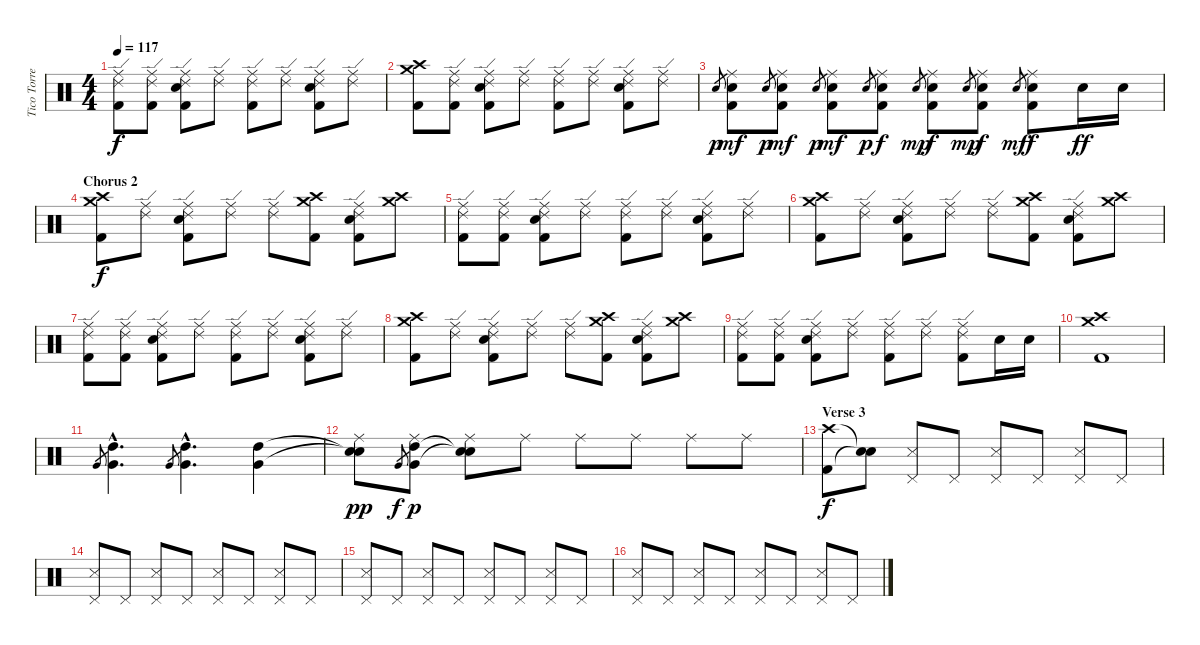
\track ("Tico Torres" "Tico Torre") {instrument percussion}
\staff {score}
\articulation defaults
\ts (4 4)
\tempo 117
\clef neutral
\ks c
("Ride (middle)" "Ride (edge) 2" "Kick (hit) 2").8{dy f} ("Ride (middle)" "Ride (edge) 2" "Kick (hit) 2").8 ("Ride (middle)" "Ride (edge) 2" "Electric Snare (hit)" "Kick (hit) 2").8 ("Ride (middle)" "Ride (edge) 2").8 ("Ride (middle)" "Ride (edge) 2" "Kick (hit) 2").8 ("Ride (middle)" "Ride (edge) 2").8 ("Ride (middle)" "Ride (edge) 2" "Electric Snare (hit)" "Kick (hit) 2").8 ("Ride (middle)" "Ride (edge) 2").8 |
("Crash high (hit)" "Crash medium (hit)" "Kick (hit) 2").8 ("Ride (middle)" "Ride (edge) 2" "Kick (hit) 2").8 ("Ride (middle)" "Ride (edge) 2" "Electric Snare (hit)" "Kick (hit) 2").8 ("Ride (middle)" "Ride (edge) 2").8 ("Ride (middle)" "Ride (edge) 2" "Kick (hit) 2").8 ("Ride (middle)" "Ride (edge) 2").8 ("Ride (middle)" "Ride (edge) 2" "Electric Snare (hit)" "Kick (hit) 2").8 ("Ride (middle)" "Ride (edge) 2").8 |
"Electric Snare (hit)".8{gr dy p} ("Electric Snare (hit)" "Kick (hit) 2" "Ride (middle)").8{dy mf} "Electric Snare (hit)".8{gr dy p} ("Electric Snare (hit)" "Kick (hit) 2" "Ride (middle)").8{dy mf} "Electric Snare (hit)".8{gr dy p} ("Electric Snare (hit)" "Kick (hit) 2" "Ride (middle)").8{dy mf} "Electric Snare (hit)".8{gr dy p} ("Electric Snare (hit)" "Kick (hit) 2" "Ride (middle)").8{dy f} "Electric Snare (hit)".8{gr dy mp} ("Electric Snare (hit)" "Kick (hit) 2" "Ride (middle)").8{dy f} "Electric Snare (hit)".8{gr dy mp} ("Electric Snare (hit)" "Kick (hit) 2" "Ride (middle)").8{dy f} "Electric Snare (hit)".8{gr dy mf} ("Electric Snare (hit)" "Kick (hit) 2" "Ride (middle)").8{dy f} "Electric Snare (hit)".16{dy ff} "Electric Snare (hit)".16 |
\section ("" "Chorus 2")
("Crash high (hit)" "Crash medium (hit)" "Kick (hit) 2").8{dy f} ("Ride (middle)" "Ride (edge) 2").8 ("Ride (middle)" "Ride (edge) 2" "Electric Snare (hit)" "Kick (hit) 2").8 ("Ride (middle)" "Ride (edge) 2").8 ("Ride (middle)" "Ride (edge) 2").8 ("Crash high (hit)" "Crash medium (hit)" "Kick (hit) 2").8 ("Ride (middle)" "Ride (edge) 2" "Electric Snare (hit)" "Kick (hit) 2").8 ("Crash high (hit)" "Crash medium (hit)").8 |
("Ride (middle)" "Ride (edge) 2" "Kick (hit) 2").8 ("Ride (middle)" "Ride (edge) 2" "Kick (hit) 2").8 ("Ride (middle)" "Ride (edge) 2" "Electric Snare (hit)" "Kick (hit) 2").8 ("Ride (middle)" "Ride (edge) 2").8 ("Ride (middle)" "Ride (edge) 2" "Kick (hit) 2").8 ("Ride (middle)" "Ride (edge) 2").8 ("Ride (middle)" "Ride (edge) 2" "Electric Snare (hit)" "Kick (hit) 2").8 ("Ride (middle)" "Ride (edge) 2").8 |
("Crash high (hit)" "Crash medium (hit)" "Kick (hit) 2").8 ("Ride (middle)" "Ride (edge) 2").8 ("Ride (middle)" "Ride (edge) 2" "Electric Snare (hit)" "Kick (hit) 2").8 ("Ride (middle)" "Ride (edge) 2").8 ("Ride (middle)" "Ride (edge) 2").8 ("Crash high (hit)" "Crash medium (hit)" "Kick (hit) 2").8 ("Ride (middle)" "Ride (edge) 2" "Electric Snare (hit)" "Kick (hit) 2").8 ("Crash high (hit)" "Crash medium (hit)").8 |
("Ride (middle)" "Ride (edge) 2" "Kick (hit) 2").8 ("Ride (middle)" "Ride (edge) 2" "Kick (hit) 2").8 ("Ride (middle)" "Ride (edge) 2" "Electric Snare (hit)" "Kick (hit) 2").8 ("Ride (middle)" "Ride (edge) 2").8 ("Ride (middle)" "Ride (edge) 2" "Kick (hit) 2").8 ("Ride (middle)" "Ride (edge) 2").8 ("Ride (middle)" "Ride (edge) 2" "Electric Snare (hit)" "Kick (hit) 2").8 ("Ride (middle)" "Ride (edge) 2").8 |
("Crash high (hit)" "Crash medium (hit)" "Kick (hit) 2").8 ("Ride (middle)" "Ride (edge) 2").8 ("Ride (middle)" "Ride (edge) 2" "Electric Snare (hit)" "Kick (hit) 2").8 ("Ride (middle)" "Ride (edge) 2").8 ("Ride (middle)" "Ride (edge) 2").8 ("Crash high (hit)" "Crash medium (hit)" "Kick (hit) 2").8 ("Ride (middle)" "Ride (edge) 2" "Electric Snare (hit)" "Kick (hit) 2").8 ("Crash high (hit)" "Crash medium (hit)").8 |
("Ride (middle)" "Ride (edge) 2" "Kick (hit) 2").8 ("Ride (middle)" "Ride (edge) 2" "Kick (hit) 2").8 ("Ride (middle)" "Ride (edge) 2" "Electric Snare (hit)" "Kick (hit) 2").8 ("Ride (middle)" "Ride (edge) 2").8 ("Ride (middle)" "Ride (edge) 2" "Kick (hit) 2").8 ("Ride (middle)" "Ride (edge) 2").8 ("Ride (middle)" "Ride (edge) 2" "Kick (hit) 2").8 "Electric Snare (hit)".16 "Electric Snare (hit)".16 |
("Crash high (hit)" "Crash medium (hit)" "Kick (hit) 2").1 |
"Very Low Tom (hit)".8{gr} ("High Tom (hit)"{hac} "Very Low Tom (hit)"{hac}).4{d} "Very Low Tom (hit)".8{gr} ("High Tom (hit)"{hac} "Very Low Tom (hit)"{hac}).4{d} ("High Tom (hit)" "Very Low Tom (hit)").4 |
("Snare (hit)"{t} "Snare (hit)"{t} "Ride (middle)").8{dy pp} "Very Low Tom (hit)".8{gr dy f} ("High Tom (hit)" "Very Low Tom (hit)" "Ride (middle)").8{dy p} ("Snare (hit)"{t} "Snare (hit)"{t} "Ride (middle)").8 "Ride (middle)".8 "Ride (middle)".8 "Ride (middle)".8 "Ride (middle)".8 "Ride (middle)".8 |
\section ("" "Verse 3")
("Crash high (hit)" "Kick (hit) 2").8{dy f} ("Snare (hit)"{t} "Snare (hit)"{t}).8 ("Snare (side stick) 3" "Pedal Hi-Hat (hit)").8 "Pedal Hi-Hat (hit)".8 ("Snare (side stick) 3" "Pedal Hi-Hat (hit)").8 "Pedal Hi-Hat (hit)".8 ("Snare (side stick) 3" "Pedal Hi-Hat (hit)").8 "Pedal Hi-Hat (hit)".8 |
("Snare (side stick) 3" "Pedal Hi-Hat (hit)").8 "Pedal Hi-Hat (hit)".8 ("Snare (side stick) 3" "Pedal Hi-Hat (hit)").8 "Pedal Hi-Hat (hit)".8 ("Snare (side stick) 3" "Pedal Hi-Hat (hit)").8 "Pedal Hi-Hat (hit)".8 ("Snare (side stick) 3" "Pedal Hi-Hat (hit)").8 "Pedal Hi-Hat (hit)".8 |
("Snare (side stick) 3" "Pedal Hi-Hat (hit)").8 "Pedal Hi-Hat (hit)".8 ("Snare (side stick) 3" "Pedal Hi-Hat (hit)").8 "Pedal Hi-Hat (hit)".8 ("Snare (side stick) 3" "Pedal Hi-Hat (hit)").8 "Pedal Hi-Hat (hit)".8 ("Snare (side stick) 3" "Pedal Hi-Hat (hit)").8 "Pedal Hi-Hat (hit)".8 |
("Snare (side stick) 3" "Pedal Hi-Hat (hit)").8 "Pedal Hi-Hat (hit)".8 ("Snare (side stick) 3" "Pedal Hi-Hat (hit)").8 "Pedal Hi-Hat (hit)".8 ("Snare (side stick) 3" "Pedal Hi-Hat (hit)").8 "Pedal Hi-Hat (hit)".8 ("Snare (side stick) 3" "Pedal Hi-Hat (hit)").8 "Pedal Hi-Hat (hit)".8
